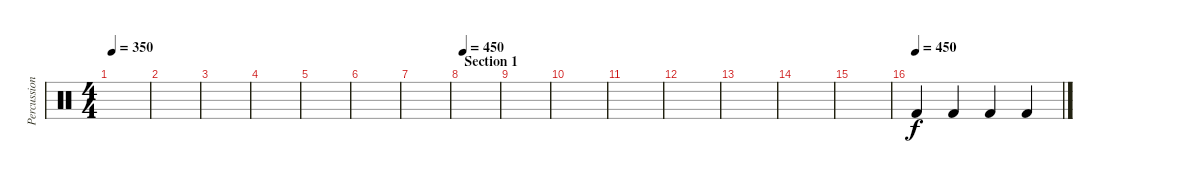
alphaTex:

\track ("Percussions2" "Percussion") {instrument percussion}
\staff {score}
\articulation defaults
\ts (4 4)
\tempo 350
\clef neutral
\ks c
|
|
|
|
|
|
|
\section ("" "Section 1")
\tempo 450
|
|
|
|
|
|
|
|
\tempo (450)
"Kick (hit) 2".4 "Kick (hit) 2".4 "Kick (hit) 2".4 "Kick (hit) 2".4
